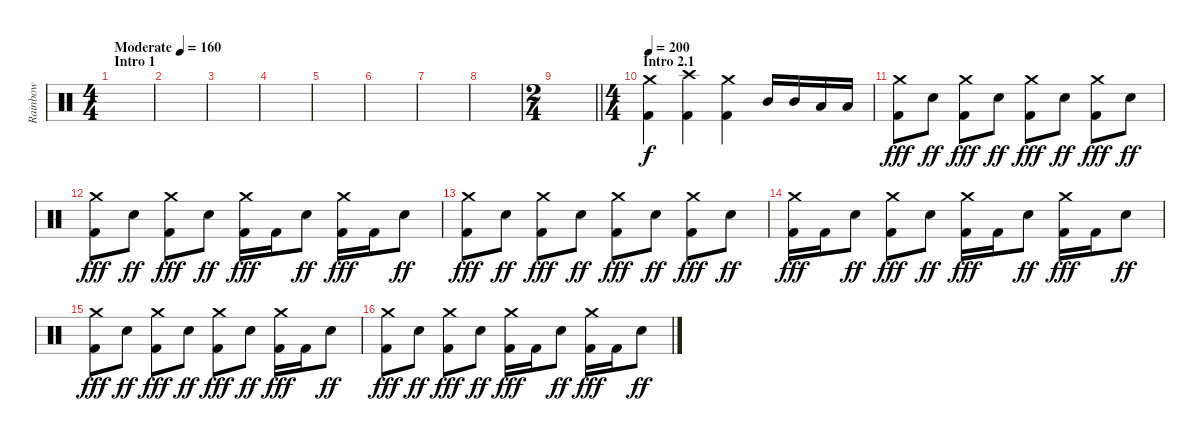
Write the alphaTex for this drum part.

\track ("Rainbow" "Rainbow") {instrument percussion}
\staff {score}
\articulation defaults
\ts (4 4)
\section ("" "Intro 1")
\tempo (160 "Moderate")
\clef neutral
\ks c
|
|
|
|
|
|
|
|
\ts (2 4)
\barLineRight lightlight
|
\ts (4 4)
\section ("" "Intro 2.1")
\tempo 200
("Crash medium (hit)" "Kick (hit) 2").4 ("Crash high (hit)" "Kick (hit) 2").4 ("Crash medium (hit)" "Kick (hit) 2").4 "Mid Tom (hit)".16{dy f} "Mid Tom (hit)".16 "Low Tom (hit)".16 "Low Tom (hit)".16 |
("Crash medium (hit)" "Kick (hit) 2").8{dy fff} "Electric Snare (hit)".8{dy ff} ("Crash medium (hit)" "Kick (hit) 2").8{dy fff} "Electric Snare (hit)".8{dy ff} ("Crash medium (hit)" "Kick (hit) 2").8{dy fff} "Electric Snare (hit)".8{dy ff} ("Crash medium (hit)" "Kick (hit) 2").8{dy fff} "Electric Snare (hit)".8{dy ff} |
("Crash medium (hit)" "Kick (hit) 2").8{dy fff} "Electric Snare (hit)".8{dy ff} ("Crash medium (hit)" "Kick (hit) 2").8{dy fff} "Electric Snare (hit)".8{dy ff} ("Crash medium (hit)" "Kick (hit) 2").16{dy fff} "Kick (hit) 2".16 "Electric Snare (hit)".8{dy ff} ("Crash medium (hit)" "Kick (hit) 2").16{dy fff} "Kick (hit) 2".16 "Electric Snare (hit)".8{dy ff} |
("Crash medium (hit)" "Kick (hit) 2").8{dy fff} "Electric Snare (hit)".8{dy ff} ("Crash medium (hit)" "Kick (hit) 2").8{dy fff} "Electric Snare (hit)".8{dy ff} ("Crash medium (hit)" "Kick (hit) 2").8{dy fff} "Electric Snare (hit)".8{dy ff} ("Crash medium (hit)" "Kick (hit) 2").8{dy fff} "Electric Snare (hit)".8{dy ff} |
("Crash medium (hit)" "Kick (hit) 2").16{dy fff} "Kick (hit) 2".16 "Electric Snare (hit)".8{dy ff} ("Crash medium (hit)" "Kick (hit) 2").8{dy fff} "Electric Snare (hit)".8{dy ff} ("Crash medium (hit)" "Kick (hit) 2").16{dy fff} "Kick (hit) 2".16 "Electric Snare (hit)".8{dy ff} ("Crash medium (hit)" "Kick (hit) 2").16{dy fff} "Kick (hit) 2".16 "Electric Snare (hit)".8{dy ff} |
("Crash medium (hit)" "Kick (hit) 2").8{dy fff} "Electric Snare (hit)".8{dy ff} ("Crash medium (hit)" "Kick (hit) 2").8{dy fff} "Electric Snare (hit)".8{dy ff} ("Crash medium (hit)" "Kick (hit) 2").8{dy fff} "Electric Snare (hit)".8{dy ff} ("Crash medium (hit)" "Kick (hit) 2").16{dy fff} "Kick (hit) 2".16 "Electric Snare (hit)".8{dy ff} |
("Crash medium (hit)" "Kick (hit) 2").8{dy fff} "Electric Snare (hit)".8{dy ff} ("Crash medium (hit)" "Kick (hit) 2").8{dy fff} "Electric Snare (hit)".8{dy ff} ("Crash medium (hit)" "Kick (hit) 2").16{dy fff} "Kick (hit) 2".16 "Electric Snare (hit)".8{dy ff} ("Crash medium (hit)" "Kick (hit) 2").16{dy fff} "Kick (hit) 2".16 "Electric Snare (hit)".8{dy ff}
